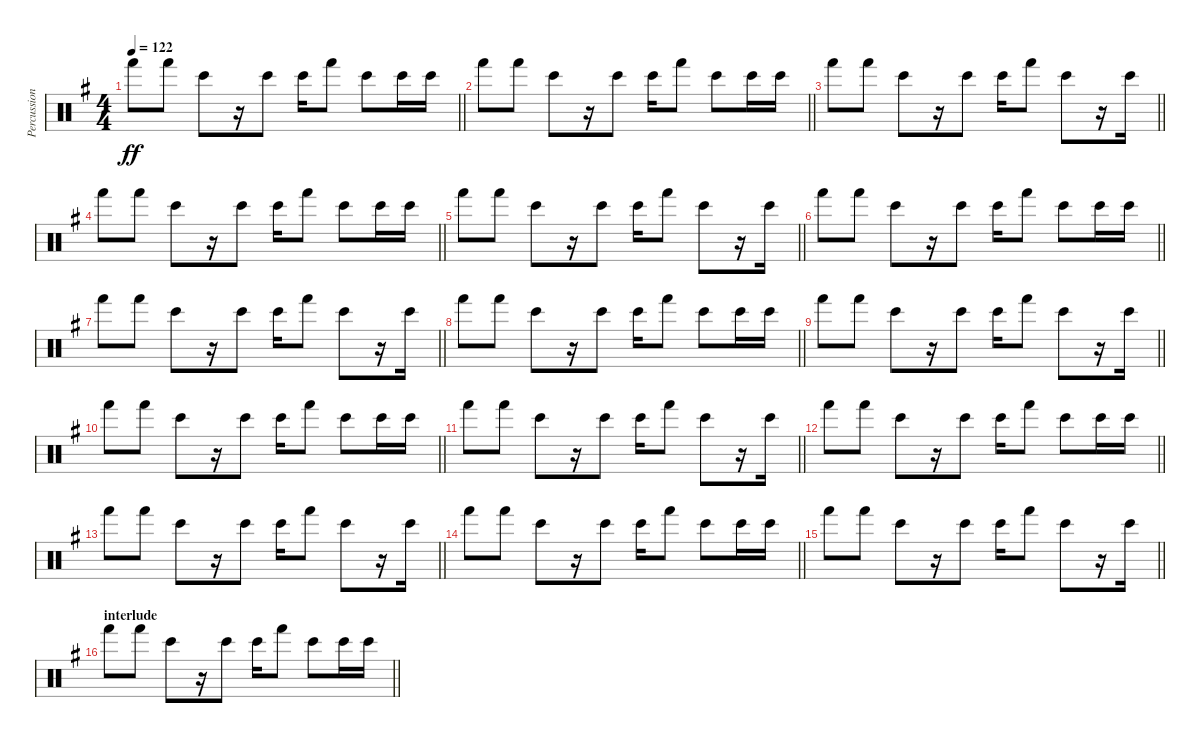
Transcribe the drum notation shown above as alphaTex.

\track ("Percussion" "Percussion") {instrument percussion}
\staff {score}
\articulation defaults
\ts (4 4)
\tempo 122
\clef neutral
\barLineRight lightlight
\ks g "Hand (hit)".8{dy ff} "Hand (hit)".8 "Bongo High (hit)".8
r.16 "Bongo High (hit)".8 "Bongo High (hit)".16 "Hand (hit)".8 "Bongo High (hit)".8 "Bongo High (hit)".16 "Bongo High (hit)".16 |
\barLineRight lightlight "Hand (hit)".8 "Hand (hit)".8 "Bongo High (hit)".8
r.16 "Bongo High (hit)".8 "Bongo High (hit)".16 "Hand (hit)".8 "Bongo High (hit)".8 "Bongo High (hit)".16 "Bongo High (hit)".16 |
\barLineRight lightlight "Hand (hit)".8 "Hand (hit)".8 "Bongo High (hit)".8
r.16 "Bongo High (hit)".8 "Bongo High (hit)".16 "Hand (hit)".8 "Bongo High (hit)".8 r.16 "Bongo High (hit)".16 |
\barLineRight lightlight "Hand (hit)".8 "Hand (hit)".8 "Bongo High (hit)".8
r.16 "Bongo High (hit)".8 "Bongo High (hit)".16 "Hand (hit)".8 "Bongo High (hit)".8 "Bongo High (hit)".16 "Bongo High (hit)".16 |
\barLineRight lightlight "Hand (hit)".8 "Hand (hit)".8 "Bongo High (hit)".8
r.16 "Bongo High (hit)".8 "Bongo High (hit)".16 "Hand (hit)".8 "Bongo High (hit)".8 r.16 "Bongo High (hit)".16 |
\barLineRight lightlight "Hand (hit)".8 "Hand (hit)".8 "Bongo High (hit)".8
r.16 "Bongo High (hit)".8 "Bongo High (hit)".16 "Hand (hit)".8 "Bongo High (hit)".8 "Bongo High (hit)".16 "Bongo High (hit)".16 |
\barLineRight lightlight "Hand (hit)".8 "Hand (hit)".8 "Bongo High (hit)".8
r.16 "Bongo High (hit)".8 "Bongo High (hit)".16 "Hand (hit)".8 "Bongo High (hit)".8 r.16 "Bongo High (hit)".16 |
\barLineRight lightlight "Hand (hit)".8 "Hand (hit)".8 "Bongo High (hit)".8
r.16 "Bongo High (hit)".8 "Bongo High (hit)".16 "Hand (hit)".8 "Bongo High (hit)".8 "Bongo High (hit)".16 "Bongo High (hit)".16 |
\barLineRight lightlight "Hand (hit)".8 "Hand (hit)".8 "Bongo High (hit)".8
r.16 "Bongo High (hit)".8 "Bongo High (hit)".16 "Hand (hit)".8 "Bongo High (hit)".8 r.16 "Bongo High (hit)".16 |
\barLineRight lightlight "Hand (hit)".8 "Hand (hit)".8 "Bongo High (hit)".8
r.16 "Bongo High (hit)".8 "Bongo High (hit)".16 "Hand (hit)".8 "Bongo High (hit)".8 "Bongo High (hit)".16 "Bongo High (hit)".16 |
\barLineRight lightlight "Hand (hit)".8 "Hand (hit)".8 "Bongo High (hit)".8
r.16 "Bongo High (hit)".8 "Bongo High (hit)".16 "Hand (hit)".8 "Bongo High (hit)".8 r.16 "Bongo High (hit)".16 |
\barLineRight lightlight "Hand (hit)".8 "Hand (hit)".8 "Bongo High (hit)".8
r.16 "Bongo High (hit)".8 "Bongo High (hit)".16 "Hand (hit)".8 "Bongo High (hit)".8 "Bongo High (hit)".16 "Bongo High (hit)".16 |
\barLineRight lightlight "Hand (hit)".8 "Hand (hit)".8 "Bongo High (hit)".8
r.16 "Bongo High (hit)".8 "Bongo High (hit)".16 "Hand (hit)".8 "Bongo High (hit)".8 r.16 "Bongo High (hit)".16 |
\barLineRight lightlight "Hand (hit)".8 "Hand (hit)".8 "Bongo High (hit)".8
r.16 "Bongo High (hit)".8 "Bongo High (hit)".16 "Hand (hit)".8 "Bongo High (hit)".8 "Bongo High (hit)".16 "Bongo High (hit)".16 |
\barLineRight lightlight "Hand (hit)".8 "Hand (hit)".8 "Bongo High (hit)".8
r.16 "Bongo High (hit)".8 "Bongo High (hit)".16 "Hand (hit)".8 "Bongo High (hit)".8 r.16 "Bongo High (hit)".16 |
\section ("" "interlude")
\barLineRight lightlight "Hand (hit)".8 "Hand (hit)".8 "Bongo High (hit)".8
r.16 "Bongo High (hit)".8 "Bongo High (hit)".16 "Hand (hit)".8 "Bongo High (hit)".8 "Bongo High (hit)".16 "Bongo High (hit)".16
